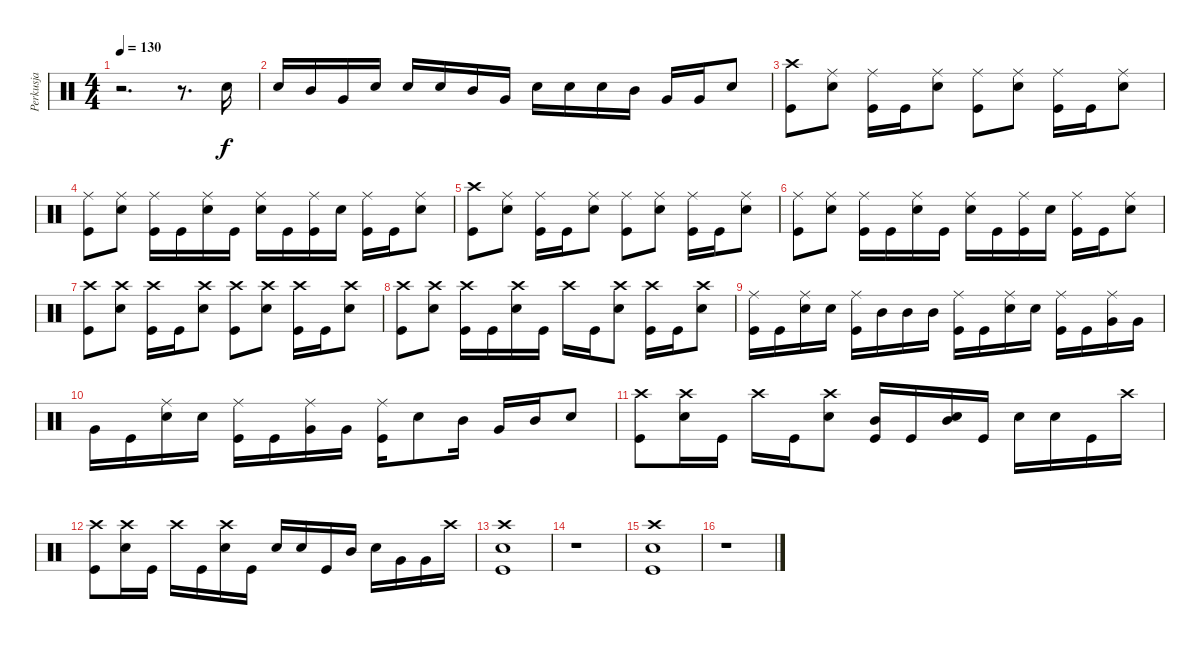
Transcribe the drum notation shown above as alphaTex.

\track ("Perkusja" "Perkusja") {instrument percussion}
\staff {score}
\articulation defaults
\ts (4 4)
\tempo 130
\clef neutral
\ks c
r.2{d dy f} r.8{d} "Snare (hit) 2".16 |
"Snare (hit) 2".16 "Mid Tom (hit)".16 "Very Low Tom (hit)".16 "Snare (hit) 2".16 "Snare (hit) 2".16 "Snare (hit) 2".16 "Mid Tom (hit)".16 "Very Low Tom (hit)".16 "Snare (hit) 2".16 "Snare (hit) 2".16 "Snare (hit) 2".16 "Mid Tom (hit)".16 "Very Low Tom (hit)".16 "Very Low Tom (hit)".16 "Snare (hit) 2".8 |
("Crash high (hit)" "Kick (hit)").8 ("Ride (middle)" "Snare (hit) 2").8 ("Ride (middle)" "Kick (hit)").16 "Kick (hit)".16 ("Ride (middle)" "Snare (hit) 2").8 ("Ride (middle)" "Kick (hit)").8 ("Ride (middle)" "Snare (hit) 2").8 ("Ride (middle)" "Kick (hit)").16 "Kick (hit)".16 ("Ride (middle)" "Snare (hit) 2").8 |
("Ride (middle)" "Kick (hit)").8 ("Ride (middle)" "Snare (hit) 2").8 ("Ride (middle)" "Kick (hit)").16 "Kick (hit)".16 ("Ride (middle)" "Snare (hit) 2").16 "Kick (hit)".16 ("Ride (middle)" "Snare (hit) 2").16 "Kick (hit)".16 ("Ride (middle)" "Kick (hit)").16 "Snare (hit) 2".16 ("Ride (middle)" "Kick (hit)").16 "Kick (hit)".16 ("Ride (middle)" "Snare (hit) 2").8 |
("Crash high (hit)" "Kick (hit)").8 ("Ride (middle)" "Snare (hit) 2").8 ("Ride (middle)" "Kick (hit)").16 "Kick (hit)".16 ("Ride (middle)" "Snare (hit) 2").8 ("Ride (middle)" "Kick (hit)").8 ("Ride (middle)" "Snare (hit) 2").8 ("Ride (middle)" "Kick (hit)").16 "Kick (hit)".16 ("Ride (middle)" "Snare (hit) 2").8 |
("Ride (middle)" "Kick (hit)").8 ("Ride (middle)" "Snare (hit) 2").8 ("Ride (middle)" "Kick (hit)").16 "Kick (hit)".16 ("Ride (middle)" "Snare (hit) 2").16 "Kick (hit)".16 ("Ride (middle)" "Snare (hit) 2").16 "Kick (hit)".16 ("Ride (middle)" "Kick (hit)").16 "Snare (hit) 2".16 ("Ride (middle)" "Kick (hit)").16 "Kick (hit)".16 ("Ride (middle)" "Snare (hit) 2").8 |
("Crash high (hit)" "Kick (hit)").8 ("Crash high (hit)" "Snare (hit) 2").8 ("Crash high (hit)" "Kick (hit)").16 "Kick (hit)".16 ("Crash high (hit)" "Snare (hit) 2").8 ("Crash high (hit)" "Kick (hit)").8 ("Crash high (hit)" "Snare (hit) 2").8 ("Crash high (hit)" "Kick (hit)").16 "Kick (hit)".16 ("Crash high (hit)" "Snare (hit) 2").8 |
("Crash high (hit)" "Kick (hit)").8 ("Crash high (hit)" "Snare (hit) 2").8 ("Crash high (hit)" "Kick (hit)").16 "Kick (hit)".16 ("Crash high (hit)" "Snare (hit) 2").16 "Kick (hit)".16 "Crash high (hit)".16 "Kick (hit)".16 ("Crash high (hit)" "Snare (hit) 2").8 ("Crash high (hit)" "Kick (hit)").16 "Kick (hit)".16 ("Crash high (hit)" "Snare (hit) 2").8 |
("Ride (middle)" "Kick (hit)").16 "Kick (hit)".16 ("Ride (middle)" "Snare (hit) 2").16 "Snare (hit) 2".16 ("Ride (middle)" "Kick (hit)").16 "Mid Tom (hit)".16 "Mid Tom (hit)".16 "Mid Tom (hit)".16 ("Ride (middle)" "Kick (hit)").16 "Kick (hit)".16 ("Ride (middle)" "Snare (hit) 2").16 "Snare (hit) 2".16 ("Ride (middle)" "Kick (hit)").16 "Kick (hit)".16 ("Ride (middle)" "Very Low Tom (hit)").16 "Very Low Tom (hit)".16 |
"Very Low Tom (hit)".16 "Kick (hit)".16 ("Ride (middle)" "Snare (hit) 2").16 "Snare (hit) 2".16 ("Ride (middle)" "Kick (hit)").16 "Kick (hit)".16 ("Ride (middle)" "Very Low Tom (hit)").16 "Very Low Tom (hit)".16 ("Ride (middle)" "Kick (hit)").16 "Snare (hit) 2".8 "Mid Tom (hit)".16 "Very Low Tom (hit)".16 "Mid Tom (hit)".16 "Snare (hit) 2".8 |
("Crash high (hit)" "Kick (hit)").8 ("Crash high (hit)" "Snare (hit) 2").16 "Kick (hit)".16 "Crash high (hit)".16 "Kick (hit)".16 ("Crash high (hit)" "Snare (hit) 2").8 ("Mid Tom (hit)" "Kick (hit)").16 "Kick (hit)".16 ("Mid Tom (hit)" "Snare (hit) 2").16 "Kick (hit)".16 "Snare (hit) 2".16 "Snare (hit) 2".16 "Kick (hit)".16 "Crash high (hit)".16 |
("Crash high (hit)" "Kick (hit)").8 ("Crash high (hit)" "Snare (hit) 2").16 "Kick (hit)".16 "Crash high (hit)".16 "Kick (hit)".16 ("Crash high (hit)" "Snare (hit) 2").16 "Kick (hit)".16 "Snare (hit) 2".16 "Snare (hit) 2".16 "Kick (hit)".16 "Mid Tom (hit)".16 "Snare (hit) 2".16 "Very Low Tom (hit)".16 "Very Low Tom (hit)".16 "Crash high (hit)".16 |
("Crash high (hit)" "Snare (hit) 2" "Kick (hit)").1 |
r.1 |
("Crash high (hit)" "Snare (hit) 2" "Kick (hit)").1 |
r.1
